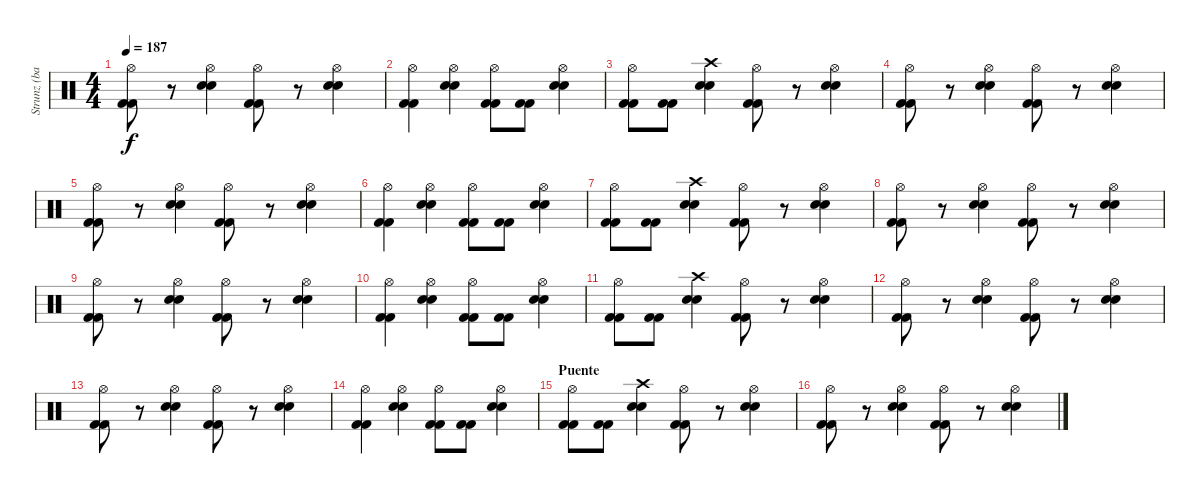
\track ("Strunz (bateria)" "Strunz (ba") {instrument percussion}
\staff {score}
\articulation defaults
\ts (4 4)
\tempo 187
\clef neutral
\ks c
("Hi-Hat (open)" "Kick (hit) 2" "Kick (hit) 2").8{dy f} r.8 ("Hi-Hat (open)" "Snare (hit) 2" "Snare (hit) 2").4 ("Hi-Hat (open)" "Kick (hit) 2" "Kick (hit) 2").8 r.8 ("Hi-Hat (open)" "Snare (hit) 2" "Snare (hit) 2").4 |
("Hi-Hat (open)" "Kick (hit) 2" "Kick (hit) 2").4 ("Hi-Hat (open)" "Snare (hit) 2" "Snare (hit) 2").4 ("Hi-Hat (open)" "Kick (hit) 2" "Kick (hit) 2").8 ("Kick (hit) 2" "Kick (hit) 2").8 ("Hi-Hat (open)" "Snare (hit) 2" "Snare (hit) 2").4 |
("Hi-Hat (open)" "Kick (hit) 2" "Kick (hit) 2").8 ("Kick (hit) 2" "Kick (hit) 2").8 ("Crash high (hit)" "Snare (hit) 2" "Snare (hit) 2").4 ("Hi-Hat (open)" "Kick (hit) 2" "Kick (hit) 2").8 r.8 ("Hi-Hat (open)" "Snare (hit) 2" "Snare (hit) 2").4 |
("Hi-Hat (open)" "Kick (hit) 2" "Kick (hit) 2").8 r.8 ("Hi-Hat (open)" "Snare (hit) 2" "Snare (hit) 2").4 ("Hi-Hat (open)" "Kick (hit) 2" "Kick (hit) 2").8 r.8 ("Hi-Hat (open)" "Snare (hit) 2" "Snare (hit) 2").4 |
("Hi-Hat (open)" "Kick (hit) 2" "Kick (hit) 2").8 r.8 ("Hi-Hat (open)" "Snare (hit) 2" "Snare (hit) 2").4 ("Hi-Hat (open)" "Kick (hit) 2" "Kick (hit) 2").8 r.8 ("Hi-Hat (open)" "Snare (hit) 2" "Snare (hit) 2").4 |
("Hi-Hat (open)" "Kick (hit) 2" "Kick (hit) 2").4 ("Hi-Hat (open)" "Snare (hit) 2" "Snare (hit) 2").4 ("Hi-Hat (open)" "Kick (hit) 2" "Kick (hit) 2").8 ("Kick (hit) 2" "Kick (hit) 2").8 ("Hi-Hat (open)" "Snare (hit) 2" "Snare (hit) 2").4 |
("Hi-Hat (open)" "Kick (hit) 2" "Kick (hit) 2").8 ("Kick (hit) 2" "Kick (hit) 2").8 ("Crash high (hit)" "Snare (hit) 2" "Snare (hit) 2").4 ("Hi-Hat (open)" "Kick (hit) 2" "Kick (hit) 2").8 r.8 ("Hi-Hat (open)" "Snare (hit) 2" "Snare (hit) 2").4 |
("Hi-Hat (open)" "Kick (hit) 2" "Kick (hit) 2").8 r.8 ("Hi-Hat (open)" "Snare (hit) 2" "Snare (hit) 2").4 ("Hi-Hat (open)" "Kick (hit) 2" "Kick (hit) 2").8 r.8 ("Hi-Hat (open)" "Snare (hit) 2" "Snare (hit) 2").4 |
("Hi-Hat (open)" "Kick (hit) 2" "Kick (hit) 2").8 r.8 ("Hi-Hat (open)" "Snare (hit) 2" "Snare (hit) 2").4 ("Hi-Hat (open)" "Kick (hit) 2" "Kick (hit) 2").8 r.8 ("Hi-Hat (open)" "Snare (hit) 2" "Snare (hit) 2").4 |
("Hi-Hat (open)" "Kick (hit) 2" "Kick (hit) 2").4 ("Hi-Hat (open)" "Snare (hit) 2" "Snare (hit) 2").4 ("Hi-Hat (open)" "Kick (hit) 2" "Kick (hit) 2").8 ("Kick (hit) 2" "Kick (hit) 2").8 ("Hi-Hat (open)" "Snare (hit) 2" "Snare (hit) 2").4 |
("Hi-Hat (open)" "Kick (hit) 2" "Kick (hit) 2").8 ("Kick (hit) 2" "Kick (hit) 2").8 ("Crash high (hit)" "Snare (hit) 2" "Snare (hit) 2").4 ("Hi-Hat (open)" "Kick (hit) 2" "Kick (hit) 2").8 r.8 ("Hi-Hat (open)" "Snare (hit) 2" "Snare (hit) 2").4 |
("Hi-Hat (open)" "Kick (hit) 2" "Kick (hit) 2").8 r.8 ("Hi-Hat (open)" "Snare (hit) 2" "Snare (hit) 2").4 ("Hi-Hat (open)" "Kick (hit) 2" "Kick (hit) 2").8 r.8 ("Hi-Hat (open)" "Snare (hit) 2" "Snare (hit) 2").4 |
("Hi-Hat (open)" "Kick (hit) 2" "Kick (hit) 2").8 r.8 ("Hi-Hat (open)" "Snare (hit) 2" "Snare (hit) 2").4 ("Hi-Hat (open)" "Kick (hit) 2" "Kick (hit) 2").8 r.8 ("Hi-Hat (open)" "Snare (hit) 2" "Snare (hit) 2").4 |
("Hi-Hat (open)" "Kick (hit) 2" "Kick (hit) 2").4 ("Hi-Hat (open)" "Snare (hit) 2" "Snare (hit) 2").4 ("Hi-Hat (open)" "Kick (hit) 2" "Kick (hit) 2").8 ("Kick (hit) 2" "Kick (hit) 2").8 ("Hi-Hat (open)" "Snare (hit) 2" "Snare (hit) 2").4 |
\section ("" "Puente")
("Hi-Hat (open)" "Kick (hit) 2" "Kick (hit) 2").8 ("Kick (hit) 2" "Kick (hit) 2").8 ("Crash high (hit)" "Snare (hit) 2" "Snare (hit) 2").4 ("Hi-Hat (open)" "Kick (hit) 2" "Kick (hit) 2").8 r.8 ("Hi-Hat (open)" "Snare (hit) 2" "Snare (hit) 2").4 |
("Hi-Hat (open)" "Kick (hit) 2" "Kick (hit) 2").8 r.8 ("Hi-Hat (open)" "Snare (hit) 2" "Snare (hit) 2").4 ("Hi-Hat (open)" "Kick (hit) 2" "Kick (hit) 2").8 r.8 ("Hi-Hat (open)" "Snare (hit) 2" "Snare (hit) 2").4
